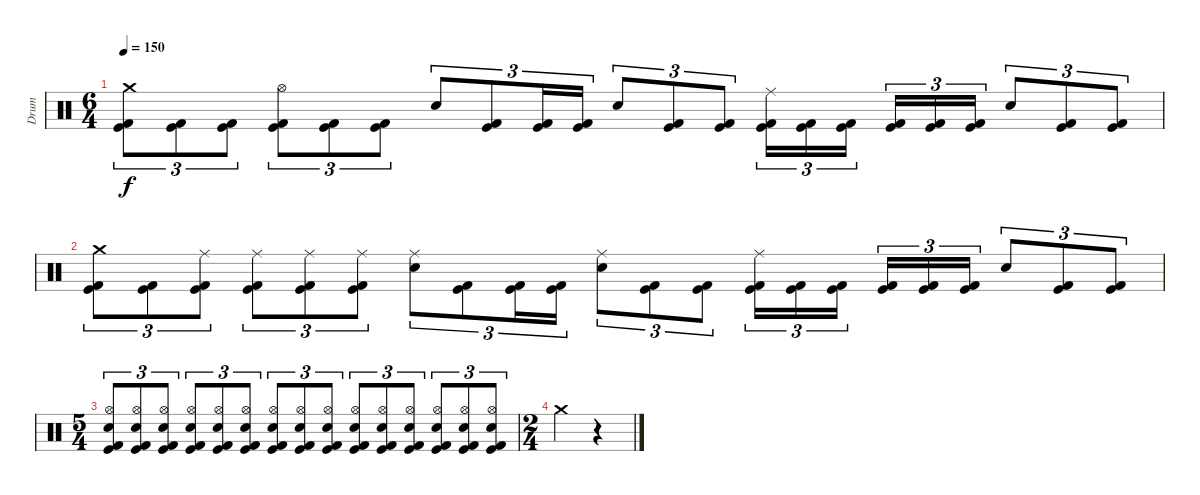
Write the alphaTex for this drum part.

\track ("Drum" "Drum") {instrument percussion}
\staff {score}
\articulation defaults
\ts (6 4)
\tempo 150
\clef neutral
\ks c
("Crash medium (hit)" "Kick (hit)" "Kick (hit) 2").8{tu (3 2) dy f} ("Kick (hit)" "Kick (hit) 2").8{tu (3 2)} ("Kick (hit)" "Kick (hit) 2").8{tu (3 2)} ("Hi-Hat (open)" "Kick (hit)" "Kick (hit) 2").8{tu (3 2)} ("Kick (hit)" "Kick (hit) 2").8{tu (3 2)} ("Kick (hit)" "Kick (hit) 2").8{tu (3 2)} "Electric Snare (hit)".8{tu (3 2)} ("Kick (hit)" "Kick (hit) 2").8{tu (3 2)} ("Kick (hit)" "Kick (hit) 2").16{tu (3 2)} ("Kick (hit)" "Kick (hit) 2").16{tu (3 2)} "Electric Snare (hit)".8{tu (3 2)} ("Kick (hit)" "Kick (hit) 2").8{tu (3 2)} ("Kick (hit)" "Kick (hit) 2").8{tu (3 2)} ("Ride (middle)" "Kick (hit)" "Kick (hit) 2").16{tu (3 2)} ("Kick (hit)" "Kick (hit) 2").16{tu (3 2)} ("Kick (hit)" "Kick (hit) 2").16{tu (3 2) beam splitsecondary} ("Kick (hit)" "Kick (hit) 2").16{tu (3 2)} ("Kick (hit)" "Kick (hit) 2").16{tu (3 2)} ("Kick (hit)" "Kick (hit) 2").16{tu (3 2)} "Electric Snare (hit)".8{tu (3 2)} ("Kick (hit)" "Kick (hit) 2").8{tu (3 2)} ("Kick (hit)" "Kick (hit) 2").8{tu (3 2)} |
("Crash medium (hit)" "Kick (hit)" "Kick (hit) 2").8{tu (3 2)} ("Kick (hit)" "Kick (hit) 2").8{tu (3 2)} ("Ride (middle)" "Kick (hit)" "Kick (hit) 2").8{tu (3 2)} ("Ride (middle)" "Kick (hit)" "Kick (hit) 2").8{tu (3 2)} ("Ride (middle)" "Kick (hit)" "Kick (hit) 2").8{tu (3 2)} ("Ride (middle)" "Kick (hit)" "Kick (hit) 2").8{tu (3 2)} ("Ride (middle)" "Electric Snare (hit)").8{tu (3 2)} ("Kick (hit)" "Kick (hit) 2").8{tu (3 2)} ("Kick (hit)" "Kick (hit) 2").16{tu (3 2)} ("Kick (hit)" "Kick (hit) 2").16{tu (3 2)} ("Ride (middle)" "Electric Snare (hit)").8{tu (3 2)} ("Kick (hit)" "Kick (hit) 2").8{tu (3 2)} ("Kick (hit)" "Kick (hit) 2").8{tu (3 2)} ("Ride (middle)" "Kick (hit)" "Kick (hit) 2").16{tu (3 2)} ("Kick (hit)" "Kick (hit) 2").16{tu (3 2)} ("Kick (hit)" "Kick (hit) 2").16{tu (3 2) beam splitsecondary} ("Kick (hit)" "Kick (hit) 2").16{tu (3 2)} ("Kick (hit)" "Kick (hit) 2").16{tu (3 2)} ("Kick (hit)" "Kick (hit) 2").16{tu (3 2)} "Electric Snare (hit)".8{tu (3 2)} ("Kick (hit)" "Kick (hit) 2").8{tu (3 2)} ("Kick (hit)" "Kick (hit) 2").8{tu (3 2)} |
\ts (5 4)
("Hi-Hat (open)" "Electric Snare (hit)" "Kick (hit)" "Kick (hit) 2").8{tu (3 2)} ("Hi-Hat (open)" "Electric Snare (hit)" "Kick (hit)" "Kick (hit) 2").8{tu (3 2)} ("Hi-Hat (open)" "Electric Snare (hit)" "Kick (hit)" "Kick (hit) 2").8{tu (3 2)} ("Hi-Hat (open)" "Electric Snare (hit)" "Kick (hit)" "Kick (hit) 2").8{tu (3 2)} ("Hi-Hat (open)" "Electric Snare (hit)" "Kick (hit)" "Kick (hit) 2").8{tu (3 2)} ("Hi-Hat (open)" "Electric Snare (hit)" "Kick (hit)" "Kick (hit) 2").8{tu (3 2)} ("Hi-Hat (open)" "Electric Snare (hit)" "Kick (hit)" "Kick (hit) 2").8{tu (3 2)} ("Hi-Hat (open)" "Electric Snare (hit)" "Kick (hit)" "Kick (hit) 2").8{tu (3 2)} ("Hi-Hat (open)" "Electric Snare (hit)" "Kick (hit)" "Kick (hit) 2").8{tu (3 2)} ("Hi-Hat (open)" "Electric Snare (hit)" "Kick (hit)" "Kick (hit) 2").8{tu (3 2)} ("Hi-Hat (open)" "Electric Snare (hit)" "Kick (hit)" "Kick (hit) 2").8{tu (3 2)} ("Hi-Hat (open)" "Electric Snare (hit)" "Kick (hit)" "Kick (hit) 2").8{tu (3 2)} ("Hi-Hat (open)" "Electric Snare (hit)" "Kick (hit)" "Kick (hit) 2").8{tu (3 2)} ("Hi-Hat (open)" "Electric Snare (hit)" "Kick (hit)" "Kick (hit) 2").8{tu (3 2)} ("Hi-Hat (open)" "Electric Snare (hit)" "Kick (hit)" "Kick (hit) 2").8{tu (3 2)} |
\ts (2 4)
"Crash medium (hit)".4 r.4
